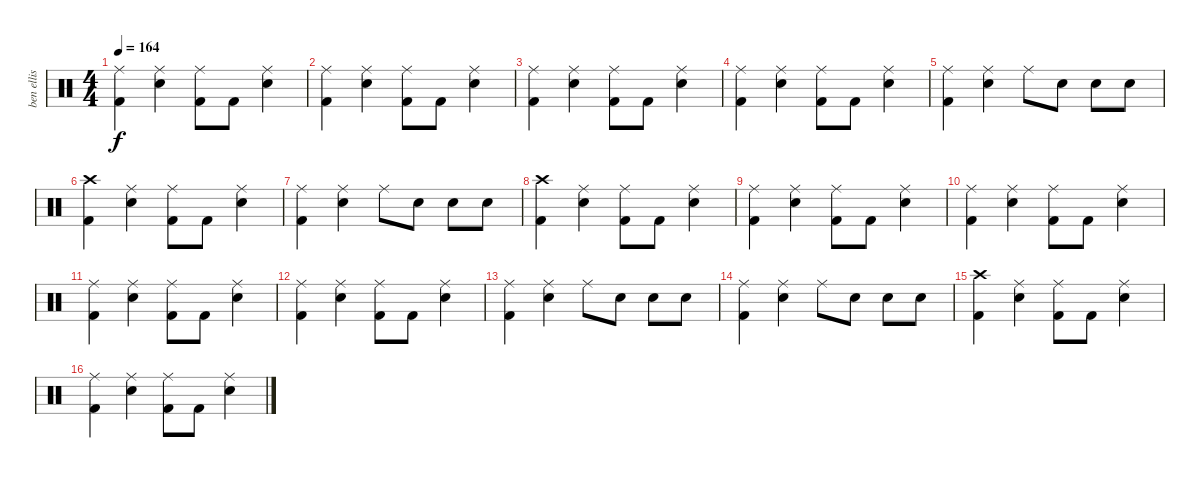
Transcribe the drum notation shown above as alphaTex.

\track ("ben ellis" "ben ellis") {instrument percussion}
\staff {score}
\articulation defaults
\ts (4 4)
\tempo 164
\clef neutral
\ks c
("Ride (middle)" "Kick (hit) 2").4{dy f} ("Ride (middle)" "Electric Snare (hit)").4 ("Ride (middle)" "Kick (hit) 2").8 "Kick (hit) 2".8 ("Ride (middle)" "Electric Snare (hit)").4 |
("Ride (middle)" "Kick (hit) 2").4 ("Ride (middle)" "Electric Snare (hit)").4 ("Ride (middle)" "Kick (hit) 2").8 "Kick (hit) 2".8 ("Ride (middle)" "Electric Snare (hit)").4 |
("Ride (middle)" "Kick (hit) 2").4 ("Ride (middle)" "Electric Snare (hit)").4 ("Ride (middle)" "Kick (hit) 2").8 "Kick (hit) 2".8 ("Ride (middle)" "Electric Snare (hit)").4 |
("Ride (middle)" "Kick (hit) 2").4 ("Ride (middle)" "Electric Snare (hit)").4 ("Ride (middle)" "Kick (hit) 2").8 "Kick (hit) 2".8 ("Ride (middle)" "Electric Snare (hit)").4 |
("Ride (middle)" "Kick (hit) 2").4 ("Ride (middle)" "Electric Snare (hit)").4 "Ride (middle)".8 "Electric Snare (hit)".8 "Electric Snare (hit)".8 "Electric Snare (hit)".8 |
("Crash high (hit)" "Kick (hit) 2").4 ("Ride (middle)" "Electric Snare (hit)").4 ("Ride (middle)" "Kick (hit) 2").8 "Kick (hit) 2".8 ("Ride (middle)" "Electric Snare (hit)").4 |
("Ride (middle)" "Kick (hit) 2").4 ("Ride (middle)" "Electric Snare (hit)").4 "Ride (middle)".8 "Electric Snare (hit)".8 "Electric Snare (hit)".8 "Electric Snare (hit)".8 |
("Crash high (hit)" "Kick (hit) 2").4 ("Ride (middle)" "Electric Snare (hit)").4 ("Ride (middle)" "Kick (hit) 2").8 "Kick (hit) 2".8 ("Ride (middle)" "Electric Snare (hit)").4 |
("Ride (middle)" "Kick (hit) 2").4 ("Ride (middle)" "Electric Snare (hit)").4 ("Ride (middle)" "Kick (hit) 2").8 "Kick (hit) 2".8 ("Ride (middle)" "Electric Snare (hit)").4 |
("Ride (middle)" "Kick (hit) 2").4 ("Ride (middle)" "Electric Snare (hit)").4 ("Ride (middle)" "Kick (hit) 2").8 "Kick (hit) 2".8 ("Ride (middle)" "Electric Snare (hit)").4 |
("Ride (middle)" "Kick (hit) 2").4 ("Ride (middle)" "Electric Snare (hit)").4 ("Ride (middle)" "Kick (hit) 2").8 "Kick (hit) 2".8 ("Ride (middle)" "Electric Snare (hit)").4 |
("Ride (middle)" "Kick (hit) 2").4 ("Ride (middle)" "Electric Snare (hit)").4 ("Ride (middle)" "Kick (hit) 2").8 "Kick (hit) 2".8 ("Ride (middle)" "Electric Snare (hit)").4 |
("Ride (middle)" "Kick (hit) 2").4 ("Ride (middle)" "Electric Snare (hit)").4 "Ride (middle)".8 "Electric Snare (hit)".8 "Electric Snare (hit)".8 "Electric Snare (hit)".8 |
("Ride (middle)" "Kick (hit) 2").4 ("Ride (middle)" "Electric Snare (hit)").4 "Ride (middle)".8 "Electric Snare (hit)".8 "Electric Snare (hit)".8 "Electric Snare (hit)".8 |
("Crash high (hit)" "Kick (hit) 2").4 ("Ride (middle)" "Electric Snare (hit)").4 ("Ride (middle)" "Kick (hit) 2").8 "Kick (hit) 2".8 ("Ride (middle)" "Electric Snare (hit)").4 |
("Ride (middle)" "Kick (hit) 2").4 ("Ride (middle)" "Electric Snare (hit)").4 ("Ride (middle)" "Kick (hit) 2").8 "Kick (hit) 2".8 ("Ride (middle)" "Electric Snare (hit)").4
